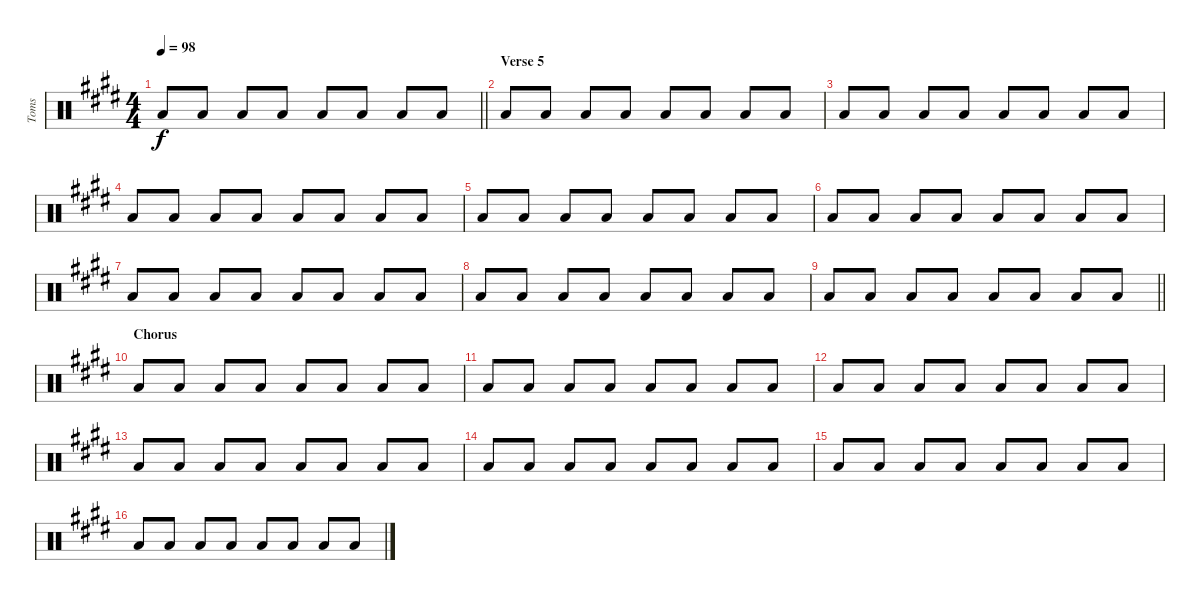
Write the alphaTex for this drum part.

\track ("Toms" "Toms") {instrument percussion}
\staff {score}
\articulation defaults
\ts (4 4)
\tempo 98
\clef neutral
\barLineRight lightlight
\ks c#minor "Low Tom (hit)".8{dy f} "Low Floor Tom (hit)".8 "Low Floor Tom (hit)".8 "Low Floor Tom (hit)".8 "Low Tom (hit)".8 "Low Floor Tom (hit)".8 "Low Floor Tom (hit)".8 "Low Floor Tom (hit)".8
|
\section ("" "Verse 5")
"Low Tom (hit)".8 "Low Floor Tom (hit)".8 "Low Floor Tom (hit)".8 "Low Floor Tom (hit)".8 "Low Tom (hit)".8 "Low Floor Tom (hit)".8 "Low Floor Tom (hit)".8 "Low Floor Tom (hit)".8 |
"Low Tom (hit)".8 "Low Floor Tom (hit)".8 "Low Floor Tom (hit)".8 "Low Floor Tom (hit)".8 "Low Tom (hit)".8 "Low Floor Tom (hit)".8 "Low Floor Tom (hit)".8 "Low Floor Tom (hit)".8 |
"Low Tom (hit)".8 "Low Floor Tom (hit)".8 "Low Floor Tom (hit)".8 "Low Floor Tom (hit)".8 "Low Tom (hit)".8 "Low Floor Tom (hit)".8 "Low Floor Tom (hit)".8 "Low Floor Tom (hit)".8 |
"Low Tom (hit)".8 "Low Floor Tom (hit)".8 "Low Floor Tom (hit)".8 "Low Floor Tom (hit)".8 "Low Tom (hit)".8 "Low Floor Tom (hit)".8 "Low Floor Tom (hit)".8 "Low Floor Tom (hit)".8 |
"Low Tom (hit)".8 "Low Floor Tom (hit)".8 "Low Floor Tom (hit)".8 "Low Floor Tom (hit)".8 "Low Tom (hit)".8 "Low Floor Tom (hit)".8 "Low Floor Tom (hit)".8 "Low Floor Tom (hit)".8 |
"Low Tom (hit)".8 "Low Floor Tom (hit)".8 "Low Floor Tom (hit)".8 "Low Floor Tom (hit)".8 "Low Tom (hit)".8 "Low Floor Tom (hit)".8 "Low Floor Tom (hit)".8 "Low Floor Tom (hit)".8 |
"Low Tom (hit)".8 "Low Floor Tom (hit)".8 "Low Floor Tom (hit)".8 "Low Floor Tom (hit)".8 "Low Tom (hit)".8 "Low Floor Tom (hit)".8 "Low Floor Tom (hit)".8 "Low Floor Tom (hit)".8 |
\barLineRight lightlight "Low Tom (hit)".8 "Low Floor Tom (hit)".8 "Low Floor Tom (hit)".8 "Low Floor Tom (hit)".8 "Low Tom (hit)".8 "Low Floor Tom (hit)".8 "Low Floor Tom (hit)".8 "Low Floor Tom (hit)".8
|
\section ("" "Chorus")
"Low Tom (hit)".8 "Low Floor Tom (hit)".8 "Low Floor Tom (hit)".8 "Low Floor Tom (hit)".8 "Low Tom (hit)".8 "Low Floor Tom (hit)".8 "Low Floor Tom (hit)".8 "Low Floor Tom (hit)".8 |
"Low Tom (hit)".8 "Low Floor Tom (hit)".8 "Low Floor Tom (hit)".8 "Low Floor Tom (hit)".8 "Low Tom (hit)".8 "Low Floor Tom (hit)".8 "Low Floor Tom (hit)".8 "Low Floor Tom (hit)".8 |
"Low Tom (hit)".8 "Low Floor Tom (hit)".8 "Low Floor Tom (hit)".8 "Low Floor Tom (hit)".8 "Low Tom (hit)".8 "Low Floor Tom (hit)".8 "Low Floor Tom (hit)".8 "Low Floor Tom (hit)".8 |
"Low Tom (hit)".8 "Low Floor Tom (hit)".8 "Low Floor Tom (hit)".8 "Low Floor Tom (hit)".8 "Low Tom (hit)".8 "Low Floor Tom (hit)".8 "Low Floor Tom (hit)".8 "Low Floor Tom (hit)".8 |
"Low Tom (hit)".8 "Low Floor Tom (hit)".8 "Low Floor Tom (hit)".8 "Low Floor Tom (hit)".8 "Low Tom (hit)".8 "Low Floor Tom (hit)".8 "Low Floor Tom (hit)".8 "Low Floor Tom (hit)".8 |
"Low Tom (hit)".8 "Low Floor Tom (hit)".8 "Low Floor Tom (hit)".8 "Low Floor Tom (hit)".8 "Low Tom (hit)".8 "Low Floor Tom (hit)".8 "Low Floor Tom (hit)".8 "Low Floor Tom (hit)".8 |
"Low Tom (hit)".8 "Low Floor Tom (hit)".8 "Low Floor Tom (hit)".8 "Low Floor Tom (hit)".8 "Low Tom (hit)".8 "Low Floor Tom (hit)".8 "Low Floor Tom (hit)".8 "Low Floor Tom (hit)".8
